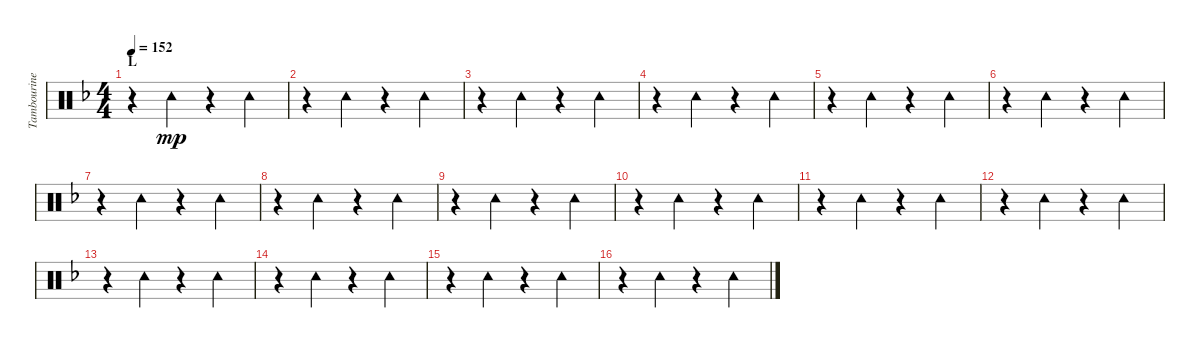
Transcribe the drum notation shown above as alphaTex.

\track ("Tambourine" "Tambourine") {instrument percussion}
\staff {score}
\articulation defaults
\ts (4 4)
\section ("" "L")
\tempo 152
\clef neutral
\ks f
r.4{dy mp} "Tambourine (hit)".4 r.4 "Tambourine (hit)".4 |
r.4 "Tambourine (hit)".4 r.4 "Tambourine (hit)".4 |
r.4 "Tambourine (hit)".4 r.4 "Tambourine (hit)".4 |
r.4 "Tambourine (hit)".4 r.4 "Tambourine (hit)".4 |
r.4 "Tambourine (hit)".4 r.4 "Tambourine (hit)".4 |
r.4 "Tambourine (hit)".4 r.4 "Tambourine (hit)".4 |
r.4 "Tambourine (hit)".4 r.4 "Tambourine (hit)".4 |
r.4 "Tambourine (hit)".4 r.4 "Tambourine (hit)".4 |
r.4 "Tambourine (hit)".4 r.4 "Tambourine (hit)".4 |
r.4 "Tambourine (hit)".4 r.4 "Tambourine (hit)".4 |
r.4 "Tambourine (hit)".4 r.4 "Tambourine (hit)".4 |
r.4 "Tambourine (hit)".4 r.4 "Tambourine (hit)".4 |
r.4 "Tambourine (hit)".4 r.4 "Tambourine (hit)".4 |
r.4 "Tambourine (hit)".4 r.4 "Tambourine (hit)".4 |
r.4 "Tambourine (hit)".4 r.4 "Tambourine (hit)".4 |
r.4 "Tambourine (hit)".4 r.4 "Tambourine (hit)".4
